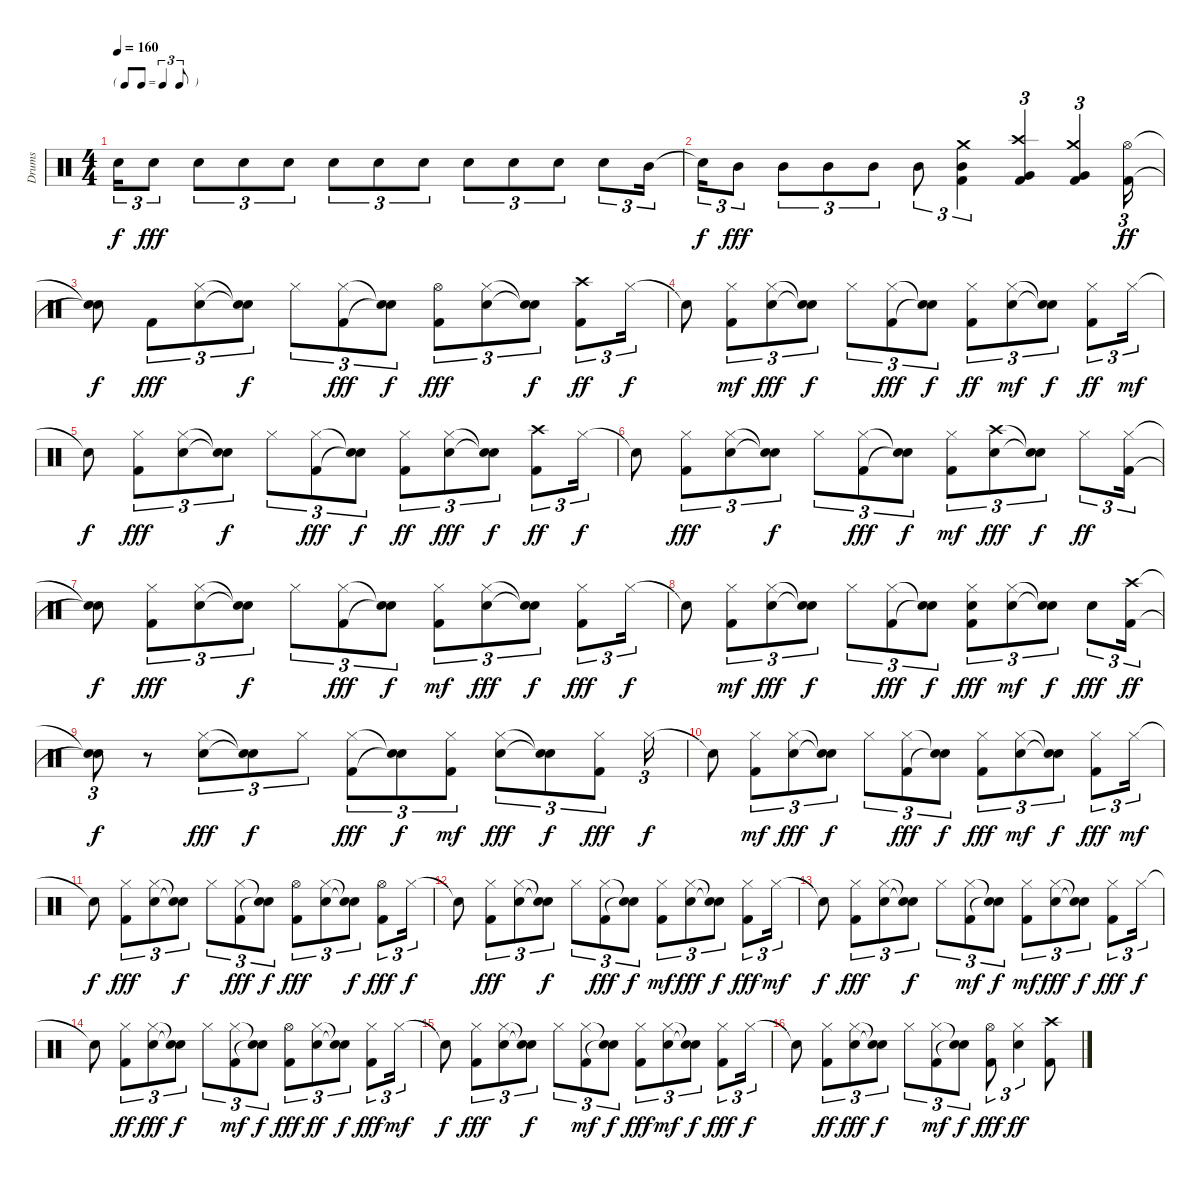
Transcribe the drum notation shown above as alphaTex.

\track ("Drums" "Drums") {instrument percussion}
\staff {score}
\articulation defaults
\ts (4 4)
\tf triplet8th
\tempo 160
\clef neutral
\ks c "Snare (hit)"{t}.16{tu (3 2) dy f} "Electric Snare (hit)".8{tu (3 2) dy fff} "Electric Snare (hit)".8{tu (3 2)} "Electric Snare (hit)".8{tu (3 2)} "Electric Snare (hit)".8{tu (3 2)} "Electric Snare (hit)".8{tu (3 2)} "Electric Snare (hit)".8{tu (3 2)} "Electric Snare (hit)".8{tu (3 2)} "Electric Snare (hit)".8{tu (3 2)} "Electric Snare (hit)".8{tu (3 2)} "Electric Snare (hit)".8{tu (3 2)} "Electric Snare (hit)".8{tu (3 2)} "Mid Tom (hit)".16{tu (3 2)}
|
"Snare (hit)"{t}.16{tu (3 2) dy f} "Mid Tom (hit)".8{tu (3 2) dy fff} "Mid Tom (hit)".8{tu (3 2)} "Mid Tom (hit)".8{tu (3 2)} "Mid Tom (hit)".8{tu (3 2)} "Mid Tom (hit)".8{tu (3 2)} ("Kick (hit) 2" "Crash medium (hit)" "Mid Tom (hit)").4{tu (3 2)} ("Kick (hit) 2" "Crash high (hit)" "Very Low Tom (hit)").4{tu (3 2)} ("Kick (hit) 2" "Crash medium (hit)" "Very Low Tom (hit)").4{tu (3 2)} ("Kick (hit) 2" "Hi-Hat (open)").16{tu (3 2) dy ff} |
("Snare (hit)"{t} "Snare (hit)"{t}).8{dy f} "Kick (hit) 2".8{tu (3 2) dy fff} ("Hi-Hat (closed)" "Electric Snare (hit)").8{tu (3 2)} ("Snare (hit)"{t} "Snare (hit)"{t}).8{tu (3 2) dy f} "Hi-Hat (closed)".8{tu (3 2)} ("Kick (hit) 2" "Hi-Hat (closed)").8{tu (3 2) dy fff} ("Snare (hit)"{t} "Snare (hit)"{t}).8{tu (3 2) dy f} ("Kick (hit) 2" "Hi-Hat (open)").8{tu (3 2) dy fff} ("Electric Snare (hit)" "Hi-Hat (closed)").8{tu (3 2)} ("Snare (hit)"{t} "Snare (hit)"{t}).8{tu (3 2) dy f} ("Kick (hit) 2" "Crash high (hit)").8{tu (3 2) dy ff} "Hi-Hat (closed)".16{tu (3 2) dy f} |
"Snare (hit)"{t}.8 ("Kick (hit) 2" "Hi-Hat (closed)").8{tu (3 2) dy mf} ("Electric Snare (hit)" "Hi-Hat (closed)").8{tu (3 2) dy fff} ("Snare (hit)"{t} "Snare (hit)"{t}).8{tu (3 2) dy f} "Hi-Hat (closed)".8{tu (3 2)} ("Kick (hit) 2" "Hi-Hat (closed)").8{tu (3 2) dy fff} ("Snare (hit)"{t} "Snare (hit)"{t}).8{tu (3 2) dy f} ("Kick (hit) 2" "Hi-Hat (closed)").8{tu (3 2) dy ff} ("Electric Snare (hit)" "Hi-Hat (closed)").8{tu (3 2) dy mf} ("Snare (hit)"{t} "Snare (hit)"{t}).8{tu (3 2) dy f} ("Kick (hit) 2" "Hi-Hat (closed)").8{tu (3 2) dy ff} "Hi-Hat (closed)".16{tu (3 2) dy mf} |
"Snare (hit)"{t}.8{dy f} ("Kick (hit) 2" "Hi-Hat (closed)").8{tu (3 2) dy fff} ("Hi-Hat (closed)" "Electric Snare (hit)").8{tu (3 2)} ("Snare (hit)"{t} "Snare (hit)"{t}).8{tu (3 2) dy f} "Hi-Hat (closed)".8{tu (3 2)} ("Kick (hit) 2" "Hi-Hat (closed)").8{tu (3 2) dy fff} ("Snare (hit)"{t} "Snare (hit)"{t}).8{tu (3 2) dy f} ("Kick (hit) 2" "Hi-Hat (closed)").8{tu (3 2) dy ff} ("Hi-Hat (closed)" "Electric Snare (hit)").8{tu (3 2) dy fff} ("Snare (hit)"{t} "Snare (hit)"{t}).8{tu (3 2) dy f} ("Kick (hit) 2" "Crash high (hit)").8{tu (3 2) dy ff} "Hi-Hat (closed)".16{tu (3 2) dy f} |
"Snare (hit)"{t}.8 ("Kick (hit) 2" "Hi-Hat (closed)").8{tu (3 2) dy fff} ("Hi-Hat (closed)" "Electric Snare (hit)").8{tu (3 2)} ("Snare (hit)"{t} "Snare (hit)"{t}).8{tu (3 2) dy f} "Hi-Hat (closed)".8{tu (3 2)} ("Kick (hit) 2" "Hi-Hat (closed)").8{tu (3 2) dy fff} ("Snare (hit)"{t} "Snare (hit)"{t}).8{tu (3 2) dy f} ("Kick (hit) 2" "Hi-Hat (closed)").8{tu (3 2) dy mf} ("Crash high (hit)" "Electric Snare (hit)").8{tu (3 2) dy fff} ("Snare (hit)"{t} "Snare (hit)"{t}).8{tu (3 2) dy f} "Hi-Hat (closed)".8{tu (3 2) dy ff} ("Kick (hit) 2" "Hi-Hat (closed)").16{tu (3 2)} |
("Snare (hit)"{t} "Snare (hit)"{t}).8{dy f} ("Kick (hit) 2" "Hi-Hat (closed)").8{tu (3 2) dy fff} ("Hi-Hat (closed)" "Electric Snare (hit)").8{tu (3 2)} ("Snare (hit)"{t} "Snare (hit)"{t}).8{tu (3 2) dy f} "Hi-Hat (closed)".8{tu (3 2)} ("Kick (hit) 2" "Hi-Hat (closed)").8{tu (3 2) dy fff} ("Snare (hit)"{t} "Snare (hit)"{t}).8{tu (3 2) dy f} ("Kick (hit) 2" "Hi-Hat (closed)").8{tu (3 2) dy mf} ("Electric Snare (hit)" "Hi-Hat (closed)").8{tu (3 2) dy fff} ("Snare (hit)"{t} "Snare (hit)"{t}).8{tu (3 2) dy f} ("Kick (hit) 2" "Hi-Hat (closed)").8{tu (3 2) dy fff} "Hi-Hat (closed)".16{tu (3 2) dy f} |
"Snare (hit)"{t}.8 ("Kick (hit) 2" "Hi-Hat (closed)").8{tu (3 2) dy mf} ("Electric Snare (hit)" "Hi-Hat (closed)").8{tu (3 2) dy fff} ("Snare (hit)"{t} "Snare (hit)"{t}).8{tu (3 2) dy f} "Hi-Hat (closed)".8{tu (3 2)} ("Kick (hit) 2" "Hi-Hat (closed)").8{tu (3 2) dy fff} ("Snare (hit)"{t} "Snare (hit)"{t}).8{tu (3 2) dy f} ("Kick (hit) 2" "Electric Snare (hit)" "Hi-Hat (closed)").8{tu (3 2) dy fff} ("Electric Snare (hit)" "Hi-Hat (closed)").8{tu (3 2) dy mf} ("Snare (hit)"{t} "Snare (hit)"{t}).8{tu (3 2) dy f} "Electric Snare (hit)".8{tu (3 2) dy fff} ("Kick (hit) 2" "Crash high (hit)").16{tu (3 2) dy ff} |
("Snare (hit)"{t} "Snare (hit)"{t}).8{tu (3 2) dy f} r.8 ("Hi-Hat (closed)" "Electric Snare (hit)").8{tu (3 2) dy fff} ("Snare (hit)"{t} "Snare (hit)"{t}).8{tu (3 2) dy f} "Hi-Hat (closed)".8{tu (3 2)} ("Kick (hit) 2" "Hi-Hat (closed)").8{tu (3 2) dy fff} ("Snare (hit)"{t} "Snare (hit)"{t}).8{tu (3 2) dy f} ("Kick (hit) 2" "Hi-Hat (closed)").8{tu (3 2) dy mf} ("Electric Snare (hit)" "Hi-Hat (closed)").8{tu (3 2) dy fff} ("Snare (hit)"{t} "Snare (hit)"{t}).8{tu (3 2) dy f} ("Kick (hit) 2" "Hi-Hat (closed)").8{tu (3 2) dy fff} "Hi-Hat (closed)".16{tu (3 2) dy f} |
"Snare (hit)"{t}.8 ("Kick (hit) 2" "Hi-Hat (closed)").8{tu (3 2) dy mf} ("Electric Snare (hit)" "Hi-Hat (closed)").8{tu (3 2) dy fff} ("Snare (hit)"{t} "Snare (hit)"{t}).8{tu (3 2) dy f} "Hi-Hat (closed)".8{tu (3 2)} ("Kick (hit) 2" "Hi-Hat (closed)").8{tu (3 2) dy fff} ("Snare (hit)"{t} "Snare (hit)"{t}).8{tu (3 2) dy f} ("Kick (hit) 2" "Hi-Hat (closed)").8{tu (3 2) dy fff} ("Electric Snare (hit)" "Hi-Hat (closed)").8{tu (3 2) dy mf} ("Snare (hit)"{t} "Snare (hit)"{t}).8{tu (3 2) dy f} ("Kick (hit) 2" "Hi-Hat (closed)").8{tu (3 2) dy fff} "Hi-Hat (closed)".16{tu (3 2) dy mf} |
"Snare (hit)"{t}.8{dy f} ("Kick (hit) 2" "Hi-Hat (closed)").8{tu (3 2) dy fff} ("Hi-Hat (closed)" "Electric Snare (hit)").8{tu (3 2)} ("Snare (hit)"{t} "Snare (hit)"{t}).8{tu (3 2) dy f} "Hi-Hat (closed)".8{tu (3 2)} ("Kick (hit) 2" "Hi-Hat (closed)").8{tu (3 2) dy fff} ("Snare (hit)"{t} "Snare (hit)"{t}).8{tu (3 2) dy f} ("Kick (hit) 2" "Hi-Hat (open)").8{tu (3 2) dy fff} ("Hi-Hat (closed)" "Electric Snare (hit)").8{tu (3 2)} ("Snare (hit)"{t} "Snare (hit)"{t}).8{tu (3 2) dy f} ("Kick (hit) 2" "Hi-Hat (open)").8{tu (3 2) dy fff} "Hi-Hat (closed)".16{tu (3 2) dy f} |
"Snare (hit)"{t}.8 ("Kick (hit) 2" "Hi-Hat (closed)").8{tu (3 2) dy fff} ("Hi-Hat (closed)" "Electric Snare (hit)").8{tu (3 2)} ("Snare (hit)"{t} "Snare (hit)"{t}).8{tu (3 2) dy f} "Hi-Hat (closed)".8{tu (3 2)} ("Kick (hit) 2" "Hi-Hat (closed)").8{tu (3 2) dy fff} ("Snare (hit)"{t} "Snare (hit)"{t}).8{tu (3 2) dy f} ("Kick (hit) 2" "Hi-Hat (closed)").8{tu (3 2) dy mf} ("Electric Snare (hit)" "Hi-Hat (closed)").8{tu (3 2) dy fff} ("Snare (hit)"{t} "Snare (hit)"{t}).8{tu (3 2) dy f} ("Kick (hit) 2" "Hi-Hat (closed)").8{tu (3 2) dy fff} "Hi-Hat (closed)".16{tu (3 2) dy mf} |
"Snare (hit)"{t}.8{dy f} ("Kick (hit) 2" "Hi-Hat (closed)").8{tu (3 2) dy fff} ("Electric Snare (hit)" "Hi-Hat (closed)").8{tu (3 2)} ("Snare (hit)"{t} "Snare (hit)"{t}).8{tu (3 2) dy f} "Hi-Hat (closed)".8{tu (3 2)} ("Kick (hit) 2" "Hi-Hat (closed)").8{tu (3 2) dy mf} ("Snare (hit)"{t} "Snare (hit)"{t}).8{tu (3 2) dy f} ("Kick (hit) 2" "Hi-Hat (closed)").8{tu (3 2) dy mf} ("Electric Snare (hit)" "Hi-Hat (closed)").8{tu (3 2) dy fff} ("Snare (hit)"{t} "Snare (hit)"{t}).8{tu (3 2) dy f} ("Kick (hit) 2" "Hi-Hat (closed)").8{tu (3 2) dy fff} "Hi-Hat (closed)".16{tu (3 2) dy f} |
"Snare (hit)"{t}.8 ("Kick (hit) 2" "Hi-Hat (closed)").8{tu (3 2) dy ff} ("Hi-Hat (closed)" "Electric Snare (hit)").8{tu (3 2) dy fff} ("Snare (hit)"{t} "Snare (hit)"{t}).8{tu (3 2) dy f} "Hi-Hat (closed)".8{tu (3 2)} ("Kick (hit) 2" "Hi-Hat (closed)").8{tu (3 2) dy mf} ("Snare (hit)"{t} "Snare (hit)"{t}).8{tu (3 2) dy f} ("Kick (hit) 2" "Hi-Hat (open)").8{tu (3 2) dy fff} ("Electric Snare (hit)" "Hi-Hat (closed)").8{tu (3 2) dy ff} ("Snare (hit)"{t} "Snare (hit)"{t}).8{tu (3 2) dy f} ("Kick (hit) 2" "Hi-Hat (closed)").8{tu (3 2) dy fff} "Hi-Hat (closed)".16{tu (3 2) dy mf} |
"Snare (hit)"{t}.8{dy f} ("Kick (hit) 2" "Hi-Hat (closed)").8{tu (3 2) dy fff} ("Hi-Hat (closed)" "Electric Snare (hit)").8{tu (3 2)} ("Snare (hit)"{t} "Snare (hit)"{t}).8{tu (3 2) dy f} "Hi-Hat (closed)".8{tu (3 2)} ("Kick (hit) 2" "Hi-Hat (closed)").8{tu (3 2) dy mf} ("Snare (hit)"{t} "Snare (hit)"{t}).8{tu (3 2) dy f} ("Kick (hit) 2" "Hi-Hat (closed)").8{tu (3 2) dy fff} ("Electric Snare (hit)" "Hi-Hat (closed)").8{tu (3 2) dy mf} ("Snare (hit)"{t} "Snare (hit)"{t}).8{tu (3 2) dy f} ("Kick (hit) 2" "Hi-Hat (closed)").8{tu (3 2) dy fff} "Hi-Hat (closed)".16{tu (3 2) dy f} |
"Snare (hit)"{t}.8 ("Kick (hit) 2" "Hi-Hat (closed)").8{tu (3 2) dy ff} ("Hi-Hat (closed)" "Electric Snare (hit)").8{tu (3 2) dy fff} ("Snare (hit)"{t} "Snare (hit)"{t}).8{tu (3 2) dy f} "Hi-Hat (closed)".8{tu (3 2)} ("Kick (hit) 2" "Hi-Hat (closed)").8{tu (3 2) dy mf} ("Snare (hit)"{t} "Snare (hit)"{t}).8{tu (3 2) dy f} ("Kick (hit) 2" "Hi-Hat (open)").8{tu (3 2) dy fff} ("Electric Snare (hit)" "Hi-Hat (closed)").4{tu (3 2) dy ff} ("Kick (hit) 2" "Crash high (hit)").8
